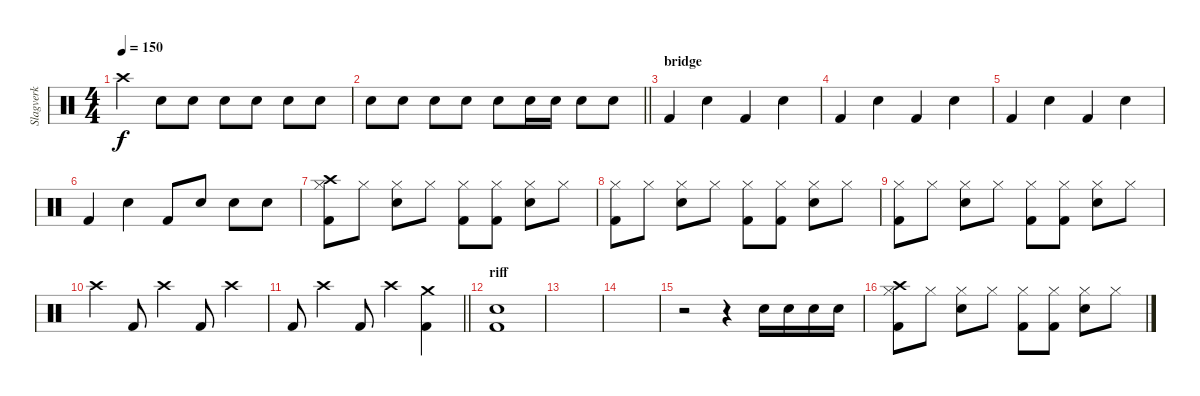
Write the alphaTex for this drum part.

\track ("Slagverk" "Slagverk") {instrument percussion}
\staff {score}
\articulation defaults
\ts (4 4)
\tempo 150
\clef neutral
\ks c "Crash high (hit)".4{dy f} "Snare (hit) 2".8 "Snare (hit) 2".8 "Snare (hit) 2".8 "Snare (hit) 2".8 "Snare (hit) 2".8 "Snare (hit) 2".8
|
\barLineRight lightlight "Snare (hit) 2".8 "Snare (hit) 2".8 "Snare (hit) 2".8 "Snare (hit) 2".8 "Snare (hit) 2".8 "Snare (hit) 2".16 "Snare (hit) 2".16 "Snare (hit) 2".8 "Snare (hit) 2".8
|
\section ("" "bridge")
"Kick (hit) 2".4 "Snare (hit) 2".4 "Kick (hit) 2".4 "Snare (hit) 2".4 |
"Kick (hit) 2".4 "Snare (hit) 2".4 "Kick (hit) 2".4 "Snare (hit) 2".4 |
"Kick (hit) 2".4 "Snare (hit) 2".4 "Kick (hit) 2".4 "Snare (hit) 2".4 |
"Kick (hit) 2".4 "Snare (hit) 2".4 "Kick (hit) 2".8 "Snare (hit) 2".8 "Snare (hit) 2".8 "Snare (hit) 2".8 |
("Hi-Hat (closed)" "Kick (hit) 2" "Crash high (hit)").8 "Hi-Hat (closed)".8 ("Hi-Hat (closed)" "Snare (hit) 2").8 "Hi-Hat (closed)".8 ("Hi-Hat (closed)" "Kick (hit) 2").8 ("Hi-Hat (closed)" "Kick (hit) 2").8 ("Hi-Hat (closed)" "Snare (hit) 2").8 "Hi-Hat (closed)".8 |
("Hi-Hat (closed)" "Kick (hit) 2").8 "Hi-Hat (closed)".8 ("Hi-Hat (closed)" "Snare (hit) 2").8 "Hi-Hat (closed)".8 ("Hi-Hat (closed)" "Kick (hit) 2").8 ("Hi-Hat (closed)" "Kick (hit) 2").8 ("Hi-Hat (closed)" "Snare (hit) 2").8 "Hi-Hat (closed)".8 |
("Hi-Hat (closed)" "Kick (hit) 2").8 "Hi-Hat (closed)".8 ("Hi-Hat (closed)" "Snare (hit) 2").8 "Hi-Hat (closed)".8 ("Hi-Hat (closed)" "Kick (hit) 2").8 ("Hi-Hat (closed)" "Kick (hit) 2").8 ("Hi-Hat (closed)" "Snare (hit) 2").8 "Hi-Hat (closed)".8 |
"Crash high (hit)".4 "Kick (hit) 2".8 "Crash high (hit)".4 "Kick (hit) 2".8 "Crash high (hit)".4 |
\barLineRight lightlight "Kick (hit) 2".8 "Crash high (hit)".4 "Kick (hit) 2".8 "Crash high (hit)".4
("Crash medium (hit)" "Kick (hit) 2").4 |
\section ("" "riff")
("Snare (hit) 2" "Kick (hit) 2").1 |
|
|
r.2 r.4 "Snare (hit) 2".16 "Snare (hit) 2".16 "Snare (hit) 2".16 "Snare (hit) 2".16 |
("Hi-Hat (closed)" "Kick (hit) 2" "Crash high (hit)").8 "Hi-Hat (closed)".8 ("Hi-Hat (closed)" "Snare (hit) 2").8 "Hi-Hat (closed)".8 ("Hi-Hat (closed)" "Kick (hit) 2").8 ("Hi-Hat (closed)" "Kick (hit) 2").8 ("Hi-Hat (closed)" "Snare (hit) 2").8 "Hi-Hat (closed)".8
